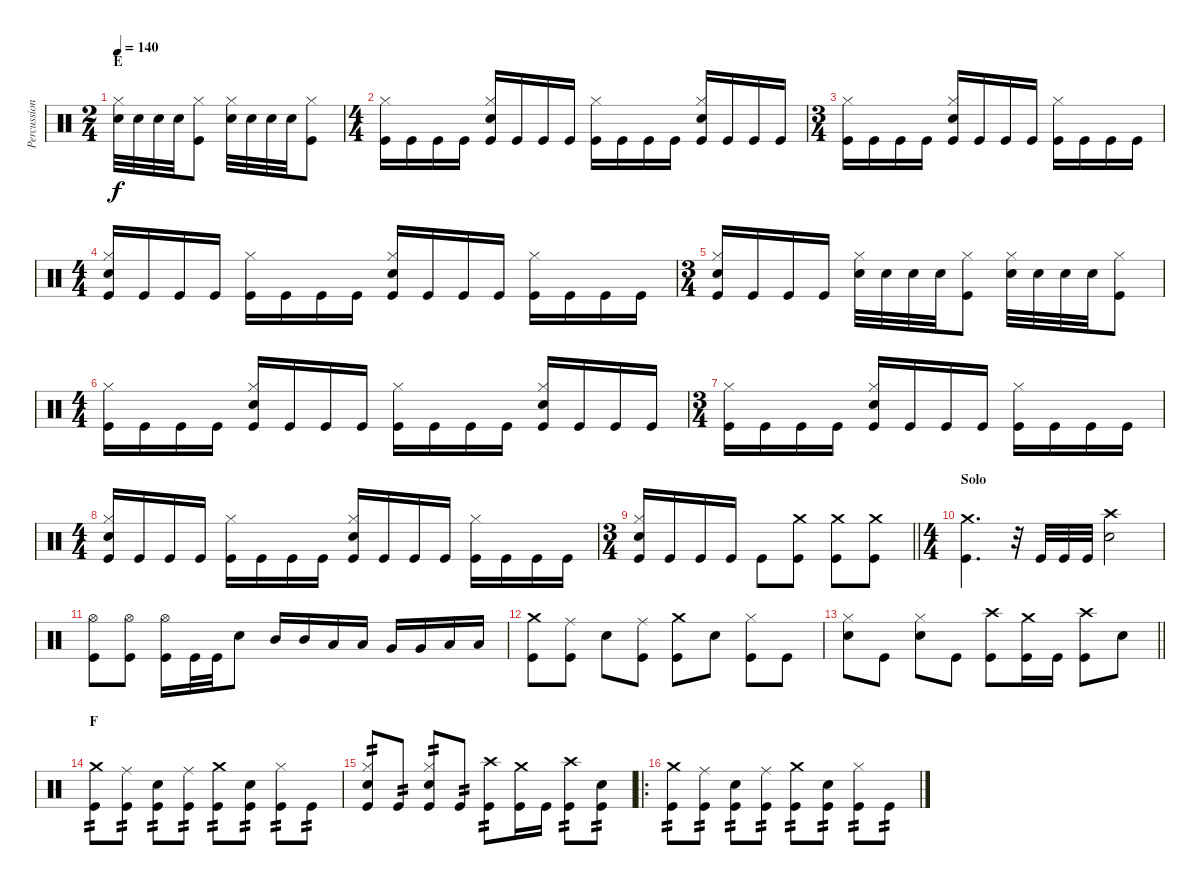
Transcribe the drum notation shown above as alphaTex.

\track ("Percussion" "Percussion") {instrument percussion}
\staff {score}
\articulation defaults
\ts (2 4)
\section ("" "E")
\tempo 140
\clef neutral
\ks c
("Snare (hit) 2" "Hi-Hat (closed)").32{dy f} "Snare (hit) 2".32 "Snare (hit) 2".32 "Snare (hit) 2".32 ("Kick (hit)" "Hi-Hat (closed)").8 ("Snare (hit) 2" "Hi-Hat (closed)").32 "Snare (hit) 2".32 "Snare (hit) 2".32 "Snare (hit) 2".32 ("Kick (hit)" "Hi-Hat (closed)").8 |
\ts (4 4)
("Kick (hit)" "Hi-Hat (closed)").16 "Kick (hit)".16 "Kick (hit)".16 "Kick (hit)".16 ("Kick (hit)" "Snare (hit) 2" "Hi-Hat (closed)").16 "Kick (hit)".16 "Kick (hit)".16 "Kick (hit)".16 ("Kick (hit)" "Hi-Hat (closed)").16 "Kick (hit)".16 "Kick (hit)".16 "Kick (hit)".16 ("Kick (hit)" "Snare (hit) 2" "Hi-Hat (closed)").16 "Kick (hit)".16 "Kick (hit)".16 "Kick (hit)".16 |
\ts (3 4)
("Kick (hit)" "Hi-Hat (closed)").16 "Kick (hit)".16 "Kick (hit)".16 "Kick (hit)".16 ("Kick (hit)" "Snare (hit) 2" "Hi-Hat (closed)").16 "Kick (hit)".16 "Kick (hit)".16 "Kick (hit)".16 ("Kick (hit)" "Hi-Hat (closed)").16 "Kick (hit)".16 "Kick (hit)".16 "Kick (hit)".16 |
\ts (4 4)
("Kick (hit)" "Snare (hit) 2" "Hi-Hat (closed)").16 "Kick (hit)".16 "Kick (hit)".16 "Kick (hit)".16 ("Kick (hit)" "Hi-Hat (closed)").16 "Kick (hit)".16 "Kick (hit)".16 "Kick (hit)".16 ("Kick (hit)" "Snare (hit) 2" "Hi-Hat (closed)").16 "Kick (hit)".16 "Kick (hit)".16 "Kick (hit)".16 ("Kick (hit)" "Hi-Hat (closed)").16 "Kick (hit)".16 "Kick (hit)".16 "Kick (hit)".16 |
\ts (3 4)
("Kick (hit)" "Snare (hit) 2" "Hi-Hat (closed)").16 "Kick (hit)".16 "Kick (hit)".16 "Kick (hit)".16 ("Snare (hit) 2" "Hi-Hat (closed)").32 "Snare (hit) 2".32 "Snare (hit) 2".32 "Snare (hit) 2".32 ("Kick (hit)" "Hi-Hat (closed)").8 ("Snare (hit) 2" "Hi-Hat (closed)").32 "Snare (hit) 2".32 "Snare (hit) 2".32 "Snare (hit) 2".32 ("Kick (hit)" "Hi-Hat (closed)").8 |
\ts (4 4)
("Kick (hit)" "Hi-Hat (closed)").16 "Kick (hit)".16 "Kick (hit)".16 "Kick (hit)".16 ("Kick (hit)" "Snare (hit) 2" "Hi-Hat (closed)").16 "Kick (hit)".16 "Kick (hit)".16 "Kick (hit)".16 ("Kick (hit)" "Hi-Hat (closed)").16 "Kick (hit)".16 "Kick (hit)".16 "Kick (hit)".16 ("Kick (hit)" "Snare (hit) 2" "Hi-Hat (closed)").16 "Kick (hit)".16 "Kick (hit)".16 "Kick (hit)".16 |
\ts (3 4)
("Kick (hit)" "Hi-Hat (closed)").16 "Kick (hit)".16 "Kick (hit)".16 "Kick (hit)".16 ("Kick (hit)" "Snare (hit) 2" "Hi-Hat (closed)").16 "Kick (hit)".16 "Kick (hit)".16 "Kick (hit)".16 ("Kick (hit)" "Hi-Hat (closed)").16 "Kick (hit)".16 "Kick (hit)".16 "Kick (hit)".16 |
\ts (4 4)
("Kick (hit)" "Snare (hit) 2" "Hi-Hat (closed)").16 "Kick (hit)".16 "Kick (hit)".16 "Kick (hit)".16 ("Kick (hit)" "Hi-Hat (closed)").16 "Kick (hit)".16 "Kick (hit)".16 "Kick (hit)".16 ("Kick (hit)" "Snare (hit) 2" "Hi-Hat (closed)").16 "Kick (hit)".16 "Kick (hit)".16 "Kick (hit)".16 ("Kick (hit)" "Hi-Hat (closed)").16 "Kick (hit)".16 "Kick (hit)".16 "Kick (hit)".16 |
\ts (3 4)
\barLineRight lightlight
("Kick (hit)" "Snare (hit) 2" "Hi-Hat (closed)").16 "Kick (hit)".16 "Kick (hit)".16 "Kick (hit)".16 "Kick (hit)".8 ("Kick (hit)" "Crash medium (hit)").8 ("Kick (hit)" "Crash medium (hit)").8 ("Kick (hit)" "Crash medium (hit)").8 |
\ts (4 4)
\section ("" "Solo")
("Kick (hit)" "Crash medium (hit)").4{d} r.32 "Kick (hit)".32 "Kick (hit)".32 "Kick (hit)".32 ("Snare (hit) 2" "Crash high (hit)").2 |
("Kick (hit)" "Hi-Hat (open)").8 ("Kick (hit)" "Hi-Hat (open)").8 ("Kick (hit)" "Hi-Hat (open)").16 "Kick (hit)".32 "Kick (hit)".32 "Snare (hit) 2".8 "Mid Tom (hit)".16 "Mid Tom (hit)".16 "Low Tom (hit)".16 "Low Tom (hit)".16 "Very Low Tom (hit)".16 "Very Low Tom (hit)".16 "Low Floor Tom (hit)".16 "Low Floor Tom (hit)".16 |
("Kick (hit)" "Crash medium (hit)").8 ("Kick (hit)" "Ride (middle)").8 "Snare (hit) 2".8 ("Kick (hit)" "Ride (middle)").8 ("Kick (hit)" "Crash medium (hit)").8 "Snare (hit) 2".8 ("Kick (hit)" "Hi-Hat (closed)").8 "Kick (hit)".8 |
\barLineRight lightlight
("Snare (hit) 2" "Hi-Hat (closed)").8 "Kick (hit)".8 ("Snare (hit) 2" "Hi-Hat (closed)").8 "Kick (hit)".8 ("Kick (hit)" "Crash high (hit)").8 ("Kick (hit)" "Crash medium (hit)").16 "Kick (hit)".16 ("Kick (hit)" "Crash high (hit)").8 "Snare (hit) 2".8 |
\section ("" "F")
("Kick (hit)" "Crash medium (hit)").8{tp 2} ("Kick (hit)" "Ride (middle)").8{tp 2} ("Snare (hit) 2" "Kick (hit)").8{tp 2} ("Kick (hit)" "Ride (middle)").8{tp 2} ("Kick (hit)" "Crash medium (hit)").8{tp 2} ("Snare (hit) 2" "Kick (hit)").8{tp 2} ("Kick (hit)" "Hi-Hat (closed)").8{tp 2} "Kick (hit)".8{tp 2} |
("Snare (hit) 2" "Kick (hit)" "Hi-Hat (closed)").8{tp 2} "Kick (hit)".8{tp 2} ("Snare (hit) 2" "Kick (hit)" "Hi-Hat (closed)").8{tp 2} "Kick (hit)".8{tp 2} ("Kick (hit)" "Crash high (hit)").8{tp 2} ("Kick (hit)" "Crash medium (hit)").16 "Kick (hit)".16 ("Kick (hit)" "Crash high (hit)").8{tp 2} ("Snare (hit) 2" "Kick (hit)").8{tp 2} |
\ro
("Kick (hit)" "Crash medium (hit)").8{tp 2} ("Kick (hit)" "Ride (middle)").8{tp 2} ("Snare (hit) 2" "Kick (hit)").8{tp 2} ("Kick (hit)" "Ride (middle)").8{tp 2} ("Kick (hit)" "Crash medium (hit)").8{tp 2} ("Snare (hit) 2" "Kick (hit)").8{tp 2} ("Kick (hit)" "Hi-Hat (closed)").8{tp 2} "Kick (hit)".8{tp 2}
